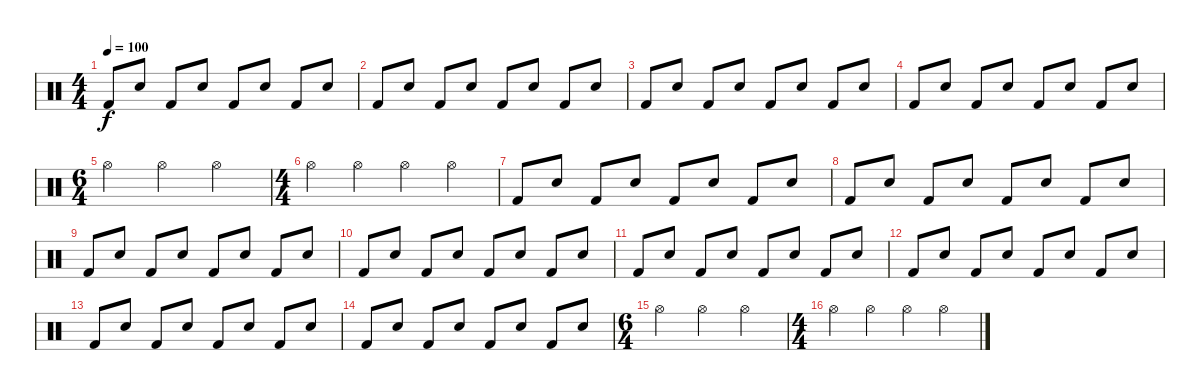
\track "" {instrument percussion}
\staff {score}
\articulation defaults
\ts (4 4)
\tempo 100
\clef neutral
\ks c "Kick (hit) 2".8{dy f} "Electric Snare (hit)".8 "Kick (hit) 2".8 "Electric Snare (hit)".8 "Kick (hit) 2".8 "Electric Snare (hit)".8 "Kick (hit) 2".8 "Electric Snare (hit)".8
|
"Kick (hit) 2".8 "Electric Snare (hit)".8 "Kick (hit) 2".8 "Electric Snare (hit)".8 "Kick (hit) 2".8 "Electric Snare (hit)".8 "Kick (hit) 2".8 "Electric Snare (hit)".8 |
"Kick (hit) 2".8 "Electric Snare (hit)".8 "Kick (hit) 2".8 "Electric Snare (hit)".8 "Kick (hit) 2".8 "Electric Snare (hit)".8 "Kick (hit) 2".8 "Electric Snare (hit)".8 |
"Kick (hit) 2".8 "Electric Snare (hit)".8 "Kick (hit) 2".8 "Electric Snare (hit)".8 "Kick (hit) 2".8 "Electric Snare (hit)".8 "Kick (hit) 2".8 "Electric Snare (hit)".8 |
\ts (6 4)
"Hi-Hat (open)".2 "Hi-Hat (open)".2 "Hi-Hat (open)".2 |
\ts (4 4)
"Hi-Hat (open)".4 "Hi-Hat (open)".4 "Hi-Hat (open)".4 "Hi-Hat (open)".4 |
"Kick (hit) 2".8 "Electric Snare (hit)".8 "Kick (hit) 2".8 "Electric Snare (hit)".8 "Kick (hit) 2".8 "Electric Snare (hit)".8 "Kick (hit) 2".8 "Electric Snare (hit)".8 |
"Kick (hit) 2".8 "Electric Snare (hit)".8 "Kick (hit) 2".8 "Electric Snare (hit)".8 "Kick (hit) 2".8 "Electric Snare (hit)".8 "Kick (hit) 2".8 "Electric Snare (hit)".8 |
"Kick (hit) 2".8 "Electric Snare (hit)".8 "Kick (hit) 2".8 "Electric Snare (hit)".8 "Kick (hit) 2".8 "Electric Snare (hit)".8 "Kick (hit) 2".8 "Electric Snare (hit)".8 |
"Kick (hit) 2".8 "Electric Snare (hit)".8 "Kick (hit) 2".8 "Electric Snare (hit)".8 "Kick (hit) 2".8 "Electric Snare (hit)".8 "Kick (hit) 2".8 "Electric Snare (hit)".8 |
"Kick (hit) 2".8 "Electric Snare (hit)".8 "Kick (hit) 2".8 "Electric Snare (hit)".8 "Kick (hit) 2".8 "Electric Snare (hit)".8 "Kick (hit) 2".8 "Electric Snare (hit)".8 |
"Kick (hit) 2".8 "Electric Snare (hit)".8 "Kick (hit) 2".8 "Electric Snare (hit)".8 "Kick (hit) 2".8 "Electric Snare (hit)".8 "Kick (hit) 2".8 "Electric Snare (hit)".8 |
"Kick (hit) 2".8 "Electric Snare (hit)".8 "Kick (hit) 2".8 "Electric Snare (hit)".8 "Kick (hit) 2".8 "Electric Snare (hit)".8 "Kick (hit) 2".8 "Electric Snare (hit)".8 |
"Kick (hit) 2".8 "Electric Snare (hit)".8 "Kick (hit) 2".8 "Electric Snare (hit)".8 "Kick (hit) 2".8 "Electric Snare (hit)".8 "Kick (hit) 2".8 "Electric Snare (hit)".8 |
\ts (6 4)
"Hi-Hat (open)".2 "Hi-Hat (open)".2 "Hi-Hat (open)".2 |
\ts (4 4)
"Hi-Hat (open)".4 "Hi-Hat (open)".4 "Hi-Hat (open)".4 "Hi-Hat (open)".4
